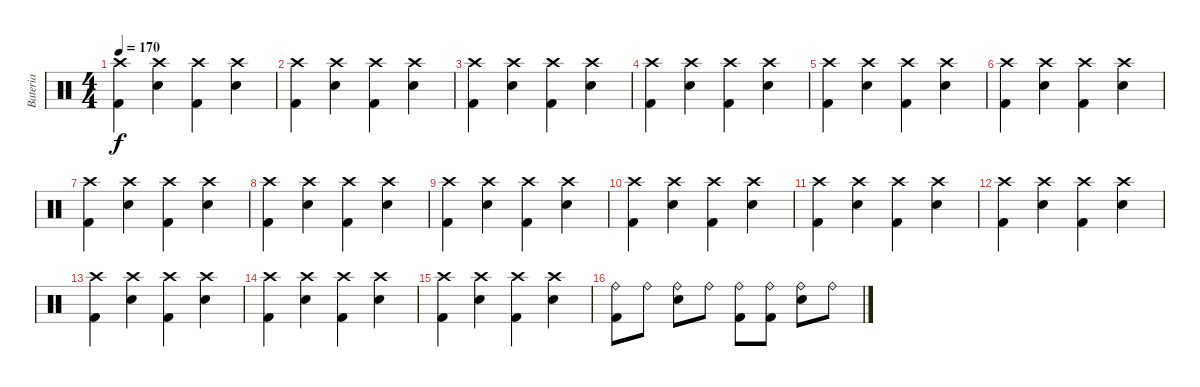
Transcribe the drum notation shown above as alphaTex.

\track ("Bateria" "Bateria") {instrument percussion}
\staff {score}
\articulation defaults
\ts (4 4)
\tempo 170
\clef neutral
\ks c
("Crash high (hit)" "Kick (hit) 2").4{dy f} ("Crash high (hit)" "Snare (hit) 2").4 ("Crash high (hit)" "Kick (hit) 2").4 ("Crash high (hit)" "Snare (hit) 2").4 |
("Crash high (hit)" "Kick (hit) 2").4 ("Crash high (hit)" "Snare (hit) 2").4 ("Crash high (hit)" "Kick (hit) 2").4 ("Crash high (hit)" "Snare (hit) 2").4 |
("Crash high (hit)" "Kick (hit) 2").4 ("Crash high (hit)" "Snare (hit) 2").4 ("Crash high (hit)" "Kick (hit) 2").4 ("Crash high (hit)" "Snare (hit) 2").4 |
("Crash high (hit)" "Kick (hit) 2").4 ("Crash high (hit)" "Snare (hit) 2").4 ("Crash high (hit)" "Kick (hit) 2").4 ("Crash high (hit)" "Snare (hit) 2").4 |
("Crash high (hit)" "Kick (hit) 2").4 ("Crash high (hit)" "Snare (hit) 2").4 ("Crash high (hit)" "Kick (hit) 2").4 ("Crash high (hit)" "Snare (hit) 2").4 |
("Crash high (hit)" "Kick (hit) 2").4 ("Crash high (hit)" "Snare (hit) 2").4 ("Crash high (hit)" "Kick (hit) 2").4 ("Crash high (hit)" "Snare (hit) 2").4 |
("Crash high (hit)" "Kick (hit) 2").4 ("Crash high (hit)" "Snare (hit) 2").4 ("Crash high (hit)" "Kick (hit) 2").4 ("Crash high (hit)" "Snare (hit) 2").4 |
("Crash high (hit)" "Kick (hit) 2").4 ("Crash high (hit)" "Snare (hit) 2").4 ("Crash high (hit)" "Kick (hit) 2").4 ("Crash high (hit)" "Snare (hit) 2").4 |
("Crash high (hit)" "Kick (hit) 2").4 ("Crash high (hit)" "Snare (hit) 2").4 ("Crash high (hit)" "Kick (hit) 2").4 ("Crash high (hit)" "Snare (hit) 2").4 |
("Crash high (hit)" "Kick (hit) 2").4 ("Crash high (hit)" "Snare (hit) 2").4 ("Crash high (hit)" "Kick (hit) 2").4 ("Crash high (hit)" "Snare (hit) 2").4 |
("Crash high (hit)" "Kick (hit) 2").4 ("Crash high (hit)" "Snare (hit) 2").4 ("Crash high (hit)" "Kick (hit) 2").4 ("Crash high (hit)" "Snare (hit) 2").4 |
("Crash high (hit)" "Kick (hit) 2").4 ("Crash high (hit)" "Snare (hit) 2").4 ("Crash high (hit)" "Kick (hit) 2").4 ("Crash high (hit)" "Snare (hit) 2").4 |
("Crash high (hit)" "Kick (hit) 2").4 ("Crash high (hit)" "Snare (hit) 2").4 ("Crash high (hit)" "Kick (hit) 2").4 ("Crash high (hit)" "Snare (hit) 2").4 |
("Crash high (hit)" "Kick (hit) 2").4 ("Crash high (hit)" "Snare (hit) 2").4 ("Crash high (hit)" "Kick (hit) 2").4 ("Crash high (hit)" "Snare (hit) 2").4 |
("Crash high (hit)" "Kick (hit) 2").4 ("Crash high (hit)" "Snare (hit) 2").4 ("Crash high (hit)" "Kick (hit) 2").4 ("Crash high (hit)" "Snare (hit) 2").4 |
("Ride (bell)" "Kick (hit) 2").8 "Ride (bell)".8 ("Ride (bell)" "Snare (hit) 2").8 "Ride (bell)".8 ("Ride (bell)" "Kick (hit) 2").8 ("Ride (bell)" "Kick (hit) 2").8 ("Ride (bell)" "Snare (hit) 2").8 "Ride (bell)".8
